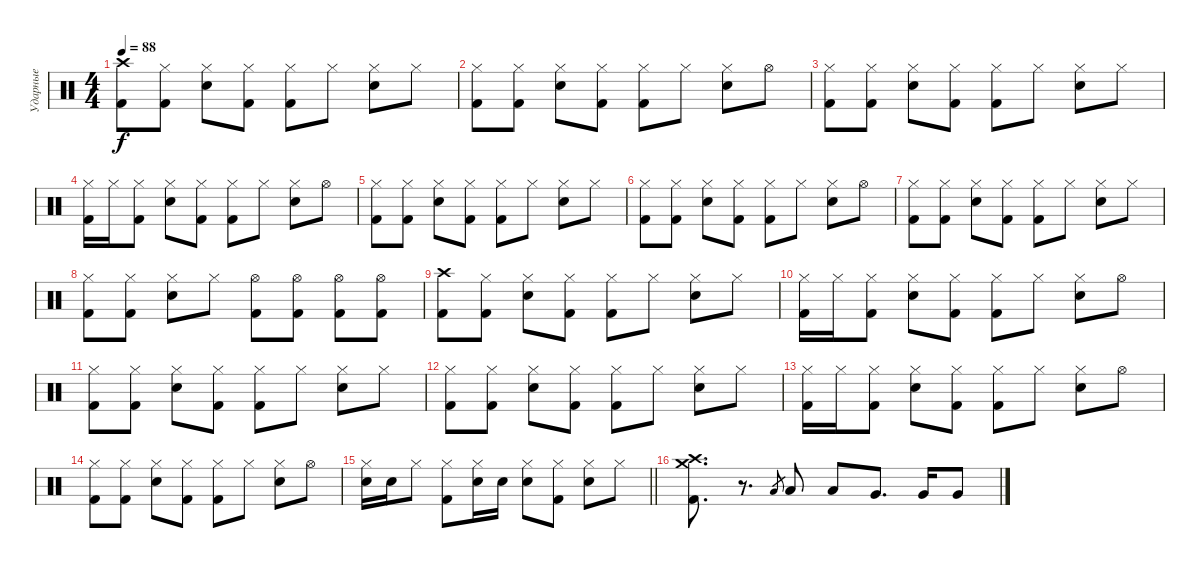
\track ("Ударные" "Ударные") {instrument percussion}
\staff {score}
\articulation defaults
\ts (4 4)
\tempo 88
\clef neutral
\ks c
("Crash high (hit)" "Kick (hit) 2").8{dy f} ("Hi-Hat (closed)" "Kick (hit) 2").8 ("Hi-Hat (closed)" "Snare (hit) 2").8 ("Hi-Hat (closed)" "Kick (hit) 2").8 ("Hi-Hat (closed)" "Kick (hit) 2").8 "Hi-Hat (closed)".8 ("Hi-Hat (closed)" "Snare (hit) 2").8 "Hi-Hat (closed)".8 |
("Hi-Hat (closed)" "Kick (hit) 2").8 ("Hi-Hat (closed)" "Kick (hit) 2").8 ("Hi-Hat (closed)" "Snare (hit) 2").8 ("Hi-Hat (closed)" "Kick (hit) 2").8 ("Hi-Hat (closed)" "Kick (hit) 2").8 "Hi-Hat (closed)".8 ("Hi-Hat (closed)" "Snare (hit) 2").8 "Hi-Hat (open)".8 |
("Hi-Hat (closed)" "Kick (hit) 2").8 ("Hi-Hat (closed)" "Kick (hit) 2").8 ("Hi-Hat (closed)" "Snare (hit) 2").8 ("Hi-Hat (closed)" "Kick (hit) 2").8 ("Hi-Hat (closed)" "Kick (hit) 2").8 "Hi-Hat (closed)".8 ("Hi-Hat (closed)" "Snare (hit) 2").8 "Hi-Hat (closed)".8 |
("Hi-Hat (closed)" "Kick (hit) 2").16 "Hi-Hat (closed)".16 ("Hi-Hat (closed)" "Kick (hit) 2").8 ("Hi-Hat (closed)" "Snare (hit) 2").8 ("Hi-Hat (closed)" "Kick (hit) 2").8 ("Hi-Hat (closed)" "Kick (hit) 2").8 "Hi-Hat (closed)".8 ("Hi-Hat (closed)" "Snare (hit) 2").8 "Hi-Hat (open)".8 |
("Hi-Hat (closed)" "Kick (hit) 2").8 ("Hi-Hat (closed)" "Kick (hit) 2").8 ("Hi-Hat (closed)" "Snare (hit) 2").8 ("Hi-Hat (closed)" "Kick (hit) 2").8 ("Hi-Hat (closed)" "Kick (hit) 2").8 "Hi-Hat (closed)".8 ("Hi-Hat (closed)" "Snare (hit) 2").8 "Hi-Hat (closed)".8 |
("Hi-Hat (closed)" "Kick (hit) 2").8 ("Hi-Hat (closed)" "Kick (hit) 2").8 ("Hi-Hat (closed)" "Snare (hit) 2").8 ("Hi-Hat (closed)" "Kick (hit) 2").8 ("Hi-Hat (closed)" "Kick (hit) 2").8 "Hi-Hat (closed)".8 ("Hi-Hat (closed)" "Snare (hit) 2").8 "Hi-Hat (open)".8 |
("Hi-Hat (closed)" "Kick (hit) 2").8 ("Hi-Hat (closed)" "Kick (hit) 2").8 ("Hi-Hat (closed)" "Snare (hit) 2").8 ("Hi-Hat (closed)" "Kick (hit) 2").8 ("Hi-Hat (closed)" "Kick (hit) 2").8 "Hi-Hat (closed)".8 ("Hi-Hat (closed)" "Snare (hit) 2").8 "Hi-Hat (closed)".8 |
("Hi-Hat (closed)" "Kick (hit) 2").8 ("Hi-Hat (closed)" "Kick (hit) 2").8 ("Hi-Hat (closed)" "Snare (hit) 2").8 "Hi-Hat (closed)".8 ("Hi-Hat (open)" "Kick (hit) 2").8 ("Hi-Hat (open)" "Kick (hit) 2").8 ("Hi-Hat (open)" "Kick (hit) 2").8 ("Hi-Hat (open)" "Kick (hit) 2").8 |
("Crash high (hit)" "Kick (hit) 2").8 ("Hi-Hat (closed)" "Kick (hit) 2").8 ("Hi-Hat (closed)" "Snare (hit) 2").8 ("Hi-Hat (closed)" "Kick (hit) 2").8 ("Hi-Hat (closed)" "Kick (hit) 2").8 "Hi-Hat (closed)".8 ("Hi-Hat (closed)" "Snare (hit) 2").8 "Hi-Hat (closed)".8 |
("Hi-Hat (closed)" "Kick (hit) 2").16 "Hi-Hat (closed)".16 ("Hi-Hat (closed)" "Kick (hit) 2").8 ("Hi-Hat (closed)" "Snare (hit) 2").8 ("Hi-Hat (closed)" "Kick (hit) 2").8 ("Hi-Hat (closed)" "Kick (hit) 2").8 "Hi-Hat (closed)".8 ("Hi-Hat (closed)" "Snare (hit) 2").8 "Hi-Hat (open)".8 |
("Hi-Hat (closed)" "Kick (hit) 2").8 ("Hi-Hat (closed)" "Kick (hit) 2").8 ("Hi-Hat (closed)" "Snare (hit) 2").8 ("Hi-Hat (closed)" "Kick (hit) 2").8 ("Hi-Hat (closed)" "Kick (hit) 2").8 "Hi-Hat (closed)".8 ("Hi-Hat (closed)" "Snare (hit) 2").8 "Hi-Hat (closed)".8 |
("Hi-Hat (closed)" "Kick (hit) 2").8 ("Hi-Hat (closed)" "Kick (hit) 2").8 ("Hi-Hat (closed)" "Snare (hit) 2").8 ("Hi-Hat (closed)" "Kick (hit) 2").8 ("Hi-Hat (closed)" "Kick (hit) 2").8 "Hi-Hat (closed)".8 ("Hi-Hat (closed)" "Snare (hit) 2").8 "Hi-Hat (closed)".8 |
("Hi-Hat (closed)" "Kick (hit) 2").16 "Hi-Hat (closed)".16 ("Hi-Hat (closed)" "Kick (hit) 2").8 ("Hi-Hat (closed)" "Snare (hit) 2").8 ("Hi-Hat (closed)" "Kick (hit) 2").8 ("Hi-Hat (closed)" "Kick (hit) 2").8 "Hi-Hat (closed)".8 ("Hi-Hat (closed)" "Snare (hit) 2").8 "Hi-Hat (open)".8 |
("Hi-Hat (closed)" "Kick (hit) 2").8 ("Hi-Hat (closed)" "Kick (hit) 2").8 ("Hi-Hat (closed)" "Snare (hit) 2").8 ("Hi-Hat (closed)" "Kick (hit) 2").8 ("Hi-Hat (closed)" "Kick (hit) 2").8 "Hi-Hat (closed)".8 ("Hi-Hat (closed)" "Snare (hit) 2").8 "Hi-Hat (open)".8 |
\barLineRight lightlight
("Hi-Hat (closed)" "Snare (hit) 2").16 "Snare (hit) 2".16 "Hi-Hat (closed)".8 ("Hi-Hat (closed)" "Kick (hit) 2").8 ("Hi-Hat (closed)" "Snare (hit) 2").16 "Snare (hit) 2".16 ("Hi-Hat (closed)" "Snare (hit) 2").8 ("Hi-Hat (closed)" "Kick (hit) 2").8 ("Hi-Hat (closed)" "Snare (hit) 2").8 "Hi-Hat (closed)".8 |
("Crash high (hit)" "Crash medium (hit)" "Kick (hit) 2").8{d} r.8{d} "Low Tom (hit)".8{gr} "Low Tom (hit)".8 "Low Tom (hit)".8 "Very Low Tom (hit)".8{d} "Very Low Tom (hit)".16 "Very Low Tom (hit)".8
